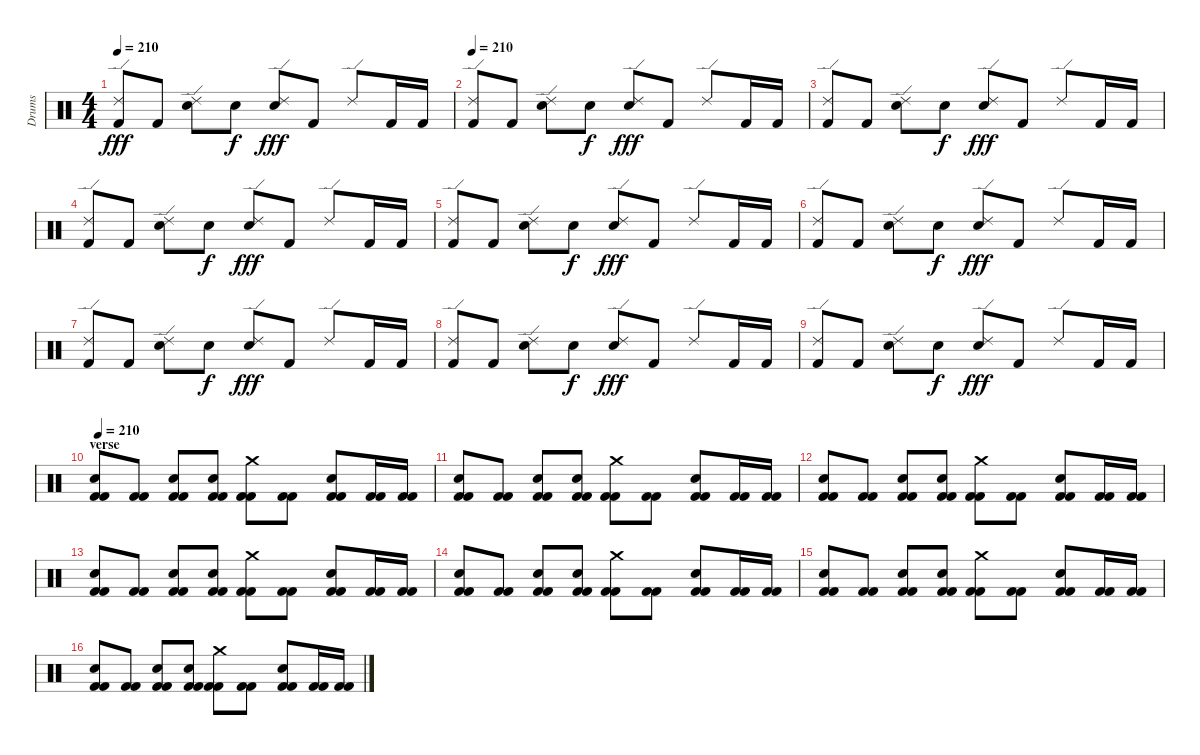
\track ("Drums" "Drums") {instrument percussion}
\staff {score}
\articulation defaults
\ts (4 4)
\tempo 210
\clef neutral
\ks c
("Ride (edge) 2" "Kick (hit) 2").8{dy fff} "Kick (hit) 2".8 ("Ride (edge) 2" "Electric Snare (hit)").8 "Electric Snare (hit)".8{dy f} ("Ride (edge) 2" "Electric Snare (hit)").8{dy fff} "Kick (hit) 2".8 "Ride (edge) 2".8 "Kick (hit) 2".16 "Kick (hit) 2".16 |
\tempo 210
("Ride (edge) 2" "Kick (hit) 2").8 "Kick (hit) 2".8 ("Ride (edge) 2" "Electric Snare (hit)").8 "Electric Snare (hit)".8{dy f} ("Ride (edge) 2" "Electric Snare (hit)").8{dy fff} "Kick (hit) 2".8 "Ride (edge) 2".8 "Kick (hit) 2".16 "Kick (hit) 2".16 |
("Ride (edge) 2" "Kick (hit) 2").8 "Kick (hit) 2".8 ("Ride (edge) 2" "Electric Snare (hit)").8 "Electric Snare (hit)".8{dy f} ("Ride (edge) 2" "Electric Snare (hit)").8{dy fff} "Kick (hit) 2".8 "Ride (edge) 2".8 "Kick (hit) 2".16 "Kick (hit) 2".16 |
("Ride (edge) 2" "Kick (hit) 2").8 "Kick (hit) 2".8 ("Ride (edge) 2" "Electric Snare (hit)").8 "Electric Snare (hit)".8{dy f} ("Ride (edge) 2" "Electric Snare (hit)").8{dy fff} "Kick (hit) 2".8 "Ride (edge) 2".8 "Kick (hit) 2".16 "Kick (hit) 2".16 |
("Ride (edge) 2" "Kick (hit) 2").8 "Kick (hit) 2".8 ("Ride (edge) 2" "Electric Snare (hit)").8 "Electric Snare (hit)".8{dy f} ("Ride (edge) 2" "Electric Snare (hit)").8{dy fff} "Kick (hit) 2".8 "Ride (edge) 2".8 "Kick (hit) 2".16 "Kick (hit) 2".16 |
("Ride (edge) 2" "Kick (hit) 2").8 "Kick (hit) 2".8 ("Ride (edge) 2" "Electric Snare (hit)").8 "Electric Snare (hit)".8{dy f} ("Ride (edge) 2" "Electric Snare (hit)").8{dy fff} "Kick (hit) 2".8 "Ride (edge) 2".8 "Kick (hit) 2".16 "Kick (hit) 2".16 |
("Ride (edge) 2" "Kick (hit) 2").8 "Kick (hit) 2".8 ("Ride (edge) 2" "Electric Snare (hit)").8 "Electric Snare (hit)".8{dy f} ("Ride (edge) 2" "Electric Snare (hit)").8{dy fff} "Kick (hit) 2".8 "Ride (edge) 2".8 "Kick (hit) 2".16 "Kick (hit) 2".16 |
("Ride (edge) 2" "Kick (hit) 2").8 "Kick (hit) 2".8 ("Ride (edge) 2" "Electric Snare (hit)").8 "Electric Snare (hit)".8{dy f} ("Ride (edge) 2" "Electric Snare (hit)").8{dy fff} "Kick (hit) 2".8 "Ride (edge) 2".8 "Kick (hit) 2".16 "Kick (hit) 2".16 |
("Ride (edge) 2" "Kick (hit) 2").8 "Kick (hit) 2".8 ("Ride (edge) 2" "Electric Snare (hit)").8 "Electric Snare (hit)".8{dy f} ("Ride (edge) 2" "Electric Snare (hit)").8{dy fff} "Kick (hit) 2".8 "Ride (edge) 2".8 "Kick (hit) 2".16 "Kick (hit) 2".16 |
\section ("" "verse")
\tempo 210
("Electric Snare (hit)" "Kick (hit) 2" "Kick (hit) 2").8 ("Kick (hit) 2" "Kick (hit) 2").8 ("Electric Snare (hit)" "Kick (hit) 2" "Kick (hit) 2").8 ("Electric Snare (hit)" "Kick (hit) 2" "Kick (hit) 2").8 ("Crash medium (hit)" "Kick (hit) 2" "Kick (hit) 2").8 ("Kick (hit) 2" "Kick (hit) 2").8 ("Electric Snare (hit)" "Kick (hit) 2" "Kick (hit) 2").8 ("Kick (hit) 2" "Kick (hit) 2").16 ("Kick (hit) 2" "Kick (hit) 2").16 |
("Electric Snare (hit)" "Kick (hit) 2" "Kick (hit) 2").8 ("Kick (hit) 2" "Kick (hit) 2").8 ("Electric Snare (hit)" "Kick (hit) 2" "Kick (hit) 2").8 ("Electric Snare (hit)" "Kick (hit) 2" "Kick (hit) 2").8 ("Crash medium (hit)" "Kick (hit) 2" "Kick (hit) 2").8 ("Kick (hit) 2" "Kick (hit) 2").8 ("Electric Snare (hit)" "Kick (hit) 2" "Kick (hit) 2").8 ("Kick (hit) 2" "Kick (hit) 2").16 ("Kick (hit) 2" "Kick (hit) 2").16 |
("Electric Snare (hit)" "Kick (hit) 2" "Kick (hit) 2").8 ("Kick (hit) 2" "Kick (hit) 2").8 ("Electric Snare (hit)" "Kick (hit) 2" "Kick (hit) 2").8 ("Electric Snare (hit)" "Kick (hit) 2" "Kick (hit) 2").8 ("Crash medium (hit)" "Kick (hit) 2" "Kick (hit) 2").8 ("Kick (hit) 2" "Kick (hit) 2").8 ("Electric Snare (hit)" "Kick (hit) 2" "Kick (hit) 2").8 ("Kick (hit) 2" "Kick (hit) 2").16 ("Kick (hit) 2" "Kick (hit) 2").16 |
("Electric Snare (hit)" "Kick (hit) 2" "Kick (hit) 2").8 ("Kick (hit) 2" "Kick (hit) 2").8 ("Electric Snare (hit)" "Kick (hit) 2" "Kick (hit) 2").8 ("Electric Snare (hit)" "Kick (hit) 2" "Kick (hit) 2").8 ("Crash medium (hit)" "Kick (hit) 2" "Kick (hit) 2").8 ("Kick (hit) 2" "Kick (hit) 2").8 ("Electric Snare (hit)" "Kick (hit) 2" "Kick (hit) 2").8 ("Kick (hit) 2" "Kick (hit) 2").16 ("Kick (hit) 2" "Kick (hit) 2").16 |
("Electric Snare (hit)" "Kick (hit) 2" "Kick (hit) 2").8 ("Kick (hit) 2" "Kick (hit) 2").8 ("Electric Snare (hit)" "Kick (hit) 2" "Kick (hit) 2").8 ("Electric Snare (hit)" "Kick (hit) 2" "Kick (hit) 2").8 ("Crash medium (hit)" "Kick (hit) 2" "Kick (hit) 2").8 ("Kick (hit) 2" "Kick (hit) 2").8 ("Electric Snare (hit)" "Kick (hit) 2" "Kick (hit) 2").8 ("Kick (hit) 2" "Kick (hit) 2").16 ("Kick (hit) 2" "Kick (hit) 2").16 |
("Electric Snare (hit)" "Kick (hit) 2" "Kick (hit) 2").8 ("Kick (hit) 2" "Kick (hit) 2").8 ("Electric Snare (hit)" "Kick (hit) 2" "Kick (hit) 2").8 ("Electric Snare (hit)" "Kick (hit) 2" "Kick (hit) 2").8 ("Crash medium (hit)" "Kick (hit) 2" "Kick (hit) 2").8 ("Kick (hit) 2" "Kick (hit) 2").8 ("Electric Snare (hit)" "Kick (hit) 2" "Kick (hit) 2").8 ("Kick (hit) 2" "Kick (hit) 2").16 ("Kick (hit) 2" "Kick (hit) 2").16 |
("Electric Snare (hit)" "Kick (hit) 2" "Kick (hit) 2").8 ("Kick (hit) 2" "Kick (hit) 2").8 ("Electric Snare (hit)" "Kick (hit) 2" "Kick (hit) 2").8 ("Electric Snare (hit)" "Kick (hit) 2" "Kick (hit) 2").8 ("Crash medium (hit)" "Kick (hit) 2" "Kick (hit) 2").8 ("Kick (hit) 2" "Kick (hit) 2").8 ("Electric Snare (hit)" "Kick (hit) 2" "Kick (hit) 2").8 ("Kick (hit) 2" "Kick (hit) 2").16 ("Kick (hit) 2" "Kick (hit) 2").16
